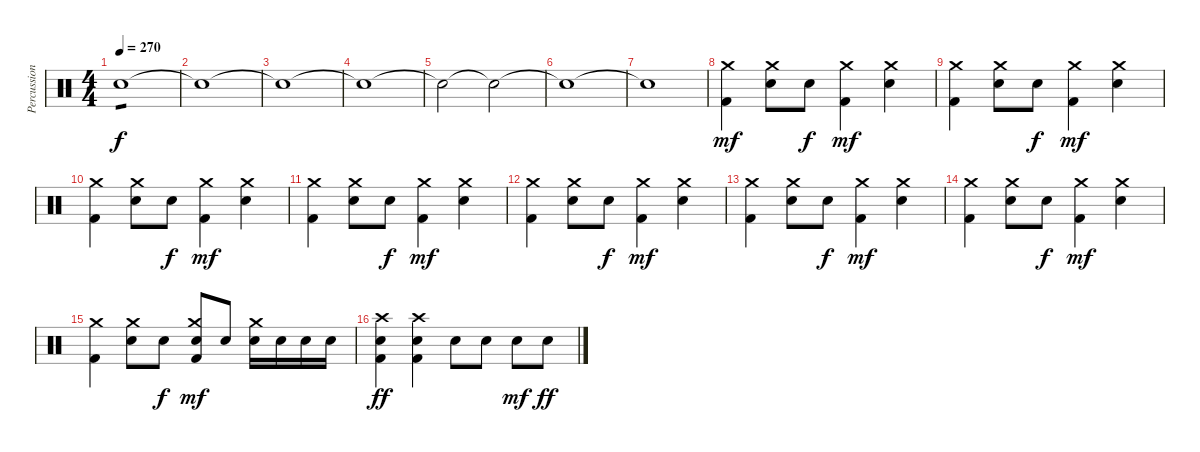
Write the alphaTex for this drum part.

\track ("Percussion" "Percussion") {instrument percussion}
\staff {score}
\articulation defaults
\ts (4 4)
\tempo 270
\clef neutral
\ks c "Electric Snare (hit)".1{tp 1 dy f volume 6}
|
"Snare (hit)"{t}.1 |
"Snare (hit)"{t}.1 |
"Snare (hit)"{t}.1 |
"Snare (hit)"{t}.2{volume 12} "Snare (hit)"{t}.2 |
"Snare (hit)"{t}.1 |
"Snare (hit)"{t}.1 |
("Crash medium (hit)" "Kick (hit) 2").4{dy mf} ("Crash medium (hit)" "Electric Snare (hit)").8 "Electric Snare (hit)".8{dy f} ("Crash medium (hit)" "Kick (hit) 2").4{dy mf} ("Crash medium (hit)" "Electric Snare (hit)").4 |
("Crash medium (hit)" "Kick (hit) 2").4 ("Crash medium (hit)" "Electric Snare (hit)").8 "Electric Snare (hit)".8{dy f} ("Crash medium (hit)" "Kick (hit) 2").4{dy mf} ("Crash medium (hit)" "Electric Snare (hit)").4 |
("Crash medium (hit)" "Kick (hit) 2").4 ("Crash medium (hit)" "Electric Snare (hit)").8 "Electric Snare (hit)".8{dy f} ("Crash medium (hit)" "Kick (hit) 2").4{dy mf} ("Crash medium (hit)" "Electric Snare (hit)").4 |
("Crash medium (hit)" "Kick (hit) 2").4 ("Crash medium (hit)" "Electric Snare (hit)").8 "Electric Snare (hit)".8{dy f} ("Crash medium (hit)" "Kick (hit) 2").4{dy mf} ("Crash medium (hit)" "Electric Snare (hit)").4 |
("Crash medium (hit)" "Kick (hit) 2").4 ("Crash medium (hit)" "Electric Snare (hit)").8 "Electric Snare (hit)".8{dy f} ("Crash medium (hit)" "Kick (hit) 2").4{dy mf} ("Crash medium (hit)" "Electric Snare (hit)").4 |
("Crash medium (hit)" "Kick (hit) 2").4 ("Crash medium (hit)" "Electric Snare (hit)").8 "Electric Snare (hit)".8{dy f} ("Crash medium (hit)" "Kick (hit) 2").4{dy mf} ("Crash medium (hit)" "Electric Snare (hit)").4 |
("Crash medium (hit)" "Kick (hit) 2").4 ("Crash medium (hit)" "Electric Snare (hit)").8 "Electric Snare (hit)".8{dy f} ("Crash medium (hit)" "Kick (hit) 2").4{dy mf} ("Crash medium (hit)" "Electric Snare (hit)").4 |
("Crash medium (hit)" "Kick (hit) 2").4 ("Crash medium (hit)" "Electric Snare (hit)").8 "Electric Snare (hit)".8{dy f} ("Crash medium (hit)" "Electric Snare (hit)" "Kick (hit) 2").8{dy mf} "Electric Snare (hit)".8 ("Crash medium (hit)" "Electric Snare (hit)").16 "Electric Snare (hit)".16 "Electric Snare (hit)".16 "Electric Snare (hit)".16 |
("Crash high (hit)" "Electric Snare (hit)" "Kick (hit) 2").4{dy ff} ("Crash high (hit)" "Electric Snare (hit)" "Kick (hit) 2").4 "Electric Snare (hit)".8 "Electric Snare (hit)".8 "Electric Snare (hit)".8{dy mf} "Electric Snare (hit)".8{dy ff}
